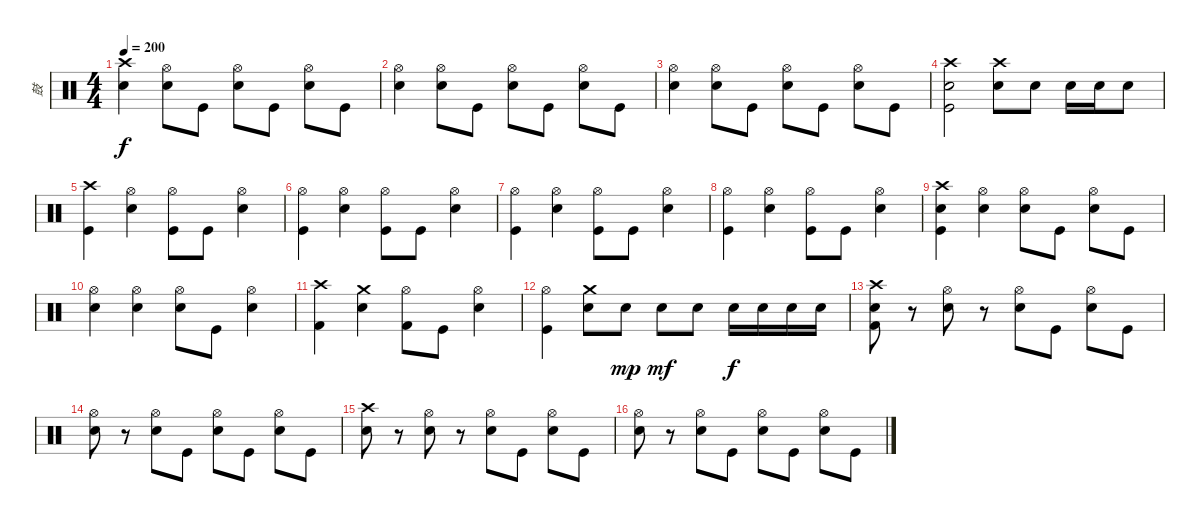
\track ("鼓" "鼓") {instrument percussion}
\staff {score}
\articulation defaults
\ts (4 4)
\tempo 200
\clef neutral
\ks c
("Crash high (hit)" "Snare (hit) 2").4{dy f} ("Hi-Hat (open)" "Snare (hit) 2").8 "Kick (hit)".8 ("Hi-Hat (open)" "Snare (hit) 2").8 "Kick (hit)".8 ("Hi-Hat (open)" "Snare (hit) 2").8 "Kick (hit)".8 |
("Hi-Hat (open)" "Snare (hit) 2").4 ("Hi-Hat (open)" "Snare (hit) 2").8 "Kick (hit)".8 ("Hi-Hat (open)" "Snare (hit) 2").8 "Kick (hit)".8 ("Hi-Hat (open)" "Snare (hit) 2").8 "Kick (hit)".8 |
("Hi-Hat (open)" "Snare (hit) 2").4 ("Hi-Hat (open)" "Snare (hit) 2").8 "Kick (hit)".8 ("Hi-Hat (open)" "Snare (hit) 2").8 "Kick (hit)".8 ("Hi-Hat (open)" "Snare (hit) 2").8 "Kick (hit)".8 |
("Crash high (hit)" "Snare (hit) 2" "Kick (hit)").2 ("Crash high (hit)" "Snare (hit) 2").8 "Snare (hit) 2".8 "Snare (hit) 2".16 "Snare (hit) 2".16 "Snare (hit) 2".8 |
("Crash high (hit)" "Kick (hit)").4 ("Hi-Hat (open)" "Snare (hit) 2").4 ("Hi-Hat (open)" "Kick (hit)").8 "Kick (hit)".8 ("Hi-Hat (open)" "Snare (hit) 2").4 |
("Hi-Hat (open)" "Kick (hit)").4 ("Hi-Hat (open)" "Snare (hit) 2").4 ("Hi-Hat (open)" "Kick (hit)").8 "Kick (hit)".8 ("Hi-Hat (open)" "Snare (hit) 2").4 |
("Hi-Hat (open)" "Kick (hit)").4 ("Hi-Hat (open)" "Snare (hit) 2").4 ("Hi-Hat (open)" "Kick (hit)").8 "Kick (hit)".8 ("Hi-Hat (open)" "Snare (hit) 2").4 |
("Hi-Hat (open)" "Kick (hit)").4 ("Hi-Hat (open)" "Snare (hit) 2").4 ("Hi-Hat (open)" "Kick (hit)").8 "Kick (hit)".8 ("Hi-Hat (open)" "Snare (hit) 2").4 |
("Crash high (hit)" "Snare (hit) 2" "Kick (hit)").4 ("Hi-Hat (open)" "Snare (hit) 2").4 ("Hi-Hat (open)" "Snare (hit) 2").8 "Kick (hit)".8 ("Hi-Hat (open)" "Snare (hit) 2").8 "Kick (hit)".8 |
("Hi-Hat (open)" "Snare (hit) 2").4 ("Hi-Hat (open)" "Snare (hit) 2").4 ("Hi-Hat (open)" "Snare (hit) 2").8 "Kick (hit)".8 ("Hi-Hat (open)" "Snare (hit) 2").4 |
("Crash high (hit)" "Kick (hit) 2").4 ("Crash medium (hit)" "Snare (hit) 2").4 ("Hi-Hat (open)" "Kick (hit) 2").8 "Kick (hit)".8 ("Hi-Hat (open)" "Snare (hit) 2").4 |
("Hi-Hat (open)" "Kick (hit)").4 ("Crash medium (hit)" "Snare (hit) 2").8 "Snare (hit) 2".8{dy mp} "Snare (hit) 2".8{dy mf} "Snare (hit) 2".8 "Snare (hit) 2".16{dy f} "Snare (hit) 2".16 "Snare (hit) 2".16 "Snare (hit) 2".16 |
("Crash high (hit)" "Snare (hit) 2" "Kick (hit) 2").8 r.8 ("Hi-Hat (open)" "Snare (hit) 2").8 r.8 ("Hi-Hat (open)" "Snare (hit) 2").8 "Kick (hit)".8 ("Hi-Hat (open)" "Snare (hit) 2").8 "Kick (hit)".8 |
("Hi-Hat (open)" "Snare (hit) 2").8 r.8 ("Hi-Hat (open)" "Snare (hit) 2").8 "Kick (hit)".8 ("Hi-Hat (open)" "Snare (hit) 2").8 "Kick (hit)".8 ("Hi-Hat (open)" "Snare (hit) 2").8 "Kick (hit)".8 |
("Crash high (hit)" "Snare (hit) 2").8 r.8 ("Hi-Hat (open)" "Snare (hit) 2").8 r.8 ("Hi-Hat (open)" "Snare (hit) 2").8 "Kick (hit)".8 ("Hi-Hat (open)" "Snare (hit) 2").8 "Kick (hit)".8 |
("Hi-Hat (open)" "Snare (hit) 2").8 r.8 ("Hi-Hat (open)" "Snare (hit) 2").8 "Kick (hit)".8 ("Hi-Hat (open)" "Snare (hit) 2").8 "Kick (hit)".8 ("Hi-Hat (open)" "Snare (hit) 2").8 "Kick (hit)".8
